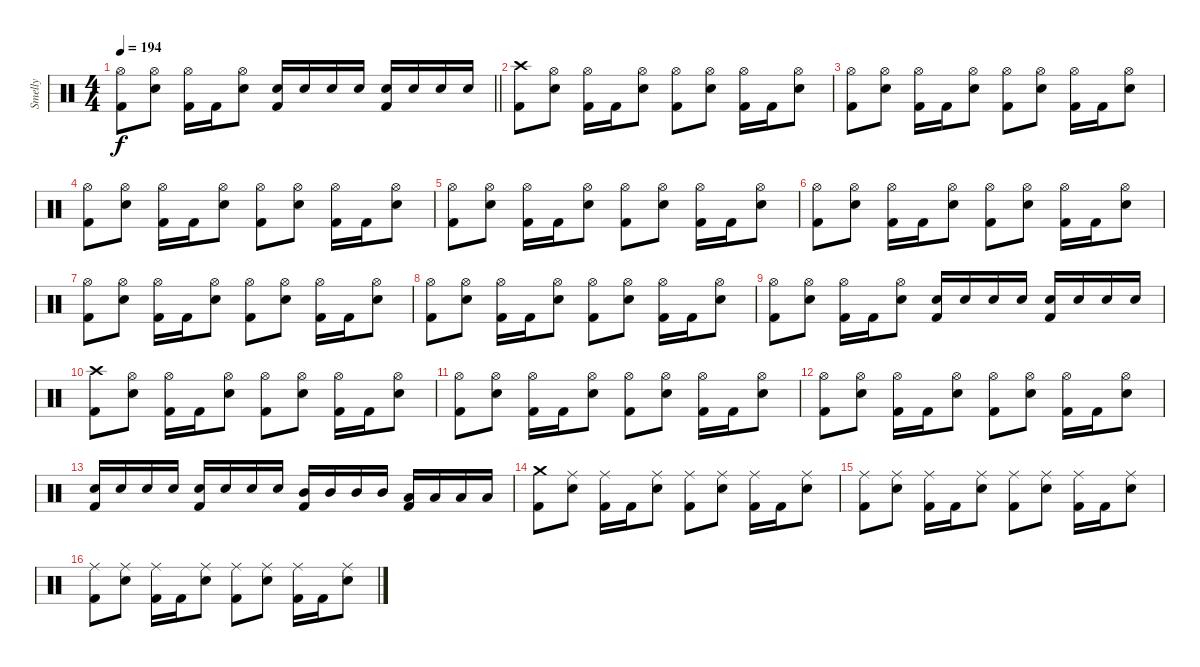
\track ("Smelly" "Smelly") {instrument percussion}
\staff {score}
\articulation defaults
\ts (4 4)
\tempo 194
\clef neutral
\barLineRight lightlight
\ks c
("Hi-Hat (open)" "Kick (hit) 2").8{dy f} ("Hi-Hat (open)" "Electric Snare (hit)").8 ("Hi-Hat (open)" "Kick (hit) 2").16 "Kick (hit) 2".16 ("Hi-Hat (open)" "Electric Snare (hit)").8 ("Electric Snare (hit)" "Kick (hit) 2").16 "Electric Snare (hit)".16 "Electric Snare (hit)".16 "Electric Snare (hit)".16 ("Electric Snare (hit)" "Kick (hit) 2").16 "Electric Snare (hit)".16 "Electric Snare (hit)".16 "Electric Snare (hit)".16 |
\section ("" "")
("Crash high (hit)" "Kick (hit) 2").8 ("Hi-Hat (open)" "Electric Snare (hit)").8 ("Hi-Hat (open)" "Kick (hit) 2").16 "Kick (hit) 2".16 ("Hi-Hat (open)" "Electric Snare (hit)").8 ("Hi-Hat (open)" "Kick (hit) 2").8 ("Hi-Hat (open)" "Electric Snare (hit)").8 ("Hi-Hat (open)" "Kick (hit) 2").16 "Kick (hit) 2".16 ("Hi-Hat (open)" "Electric Snare (hit)").8 |
("Hi-Hat (open)" "Kick (hit) 2").8 ("Hi-Hat (open)" "Electric Snare (hit)").8 ("Hi-Hat (open)" "Kick (hit) 2").16 "Kick (hit) 2".16 ("Hi-Hat (open)" "Electric Snare (hit)").8 ("Hi-Hat (open)" "Kick (hit) 2").8 ("Hi-Hat (open)" "Electric Snare (hit)").8 ("Hi-Hat (open)" "Kick (hit) 2").16 "Kick (hit) 2".16 ("Hi-Hat (open)" "Electric Snare (hit)").8 |
("Hi-Hat (open)" "Kick (hit) 2").8 ("Hi-Hat (open)" "Electric Snare (hit)").8 ("Hi-Hat (open)" "Kick (hit) 2").16 "Kick (hit) 2".16 ("Hi-Hat (open)" "Electric Snare (hit)").8 ("Hi-Hat (open)" "Kick (hit) 2").8 ("Hi-Hat (open)" "Electric Snare (hit)").8 ("Hi-Hat (open)" "Kick (hit) 2").16 "Kick (hit) 2".16 ("Hi-Hat (open)" "Electric Snare (hit)").8 |
("Hi-Hat (open)" "Kick (hit) 2").8 ("Hi-Hat (open)" "Electric Snare (hit)").8 ("Hi-Hat (open)" "Kick (hit) 2").16 "Kick (hit) 2".16 ("Hi-Hat (open)" "Electric Snare (hit)").8 ("Hi-Hat (open)" "Kick (hit) 2").8 ("Hi-Hat (open)" "Electric Snare (hit)").8 ("Hi-Hat (open)" "Kick (hit) 2").16 "Kick (hit) 2".16 ("Hi-Hat (open)" "Electric Snare (hit)").8 |
("Hi-Hat (open)" "Kick (hit) 2").8 ("Hi-Hat (open)" "Electric Snare (hit)").8 ("Hi-Hat (open)" "Kick (hit) 2").16 "Kick (hit) 2".16 ("Hi-Hat (open)" "Electric Snare (hit)").8 ("Hi-Hat (open)" "Kick (hit) 2").8 ("Hi-Hat (open)" "Electric Snare (hit)").8 ("Hi-Hat (open)" "Kick (hit) 2").16 "Kick (hit) 2".16 ("Hi-Hat (open)" "Electric Snare (hit)").8 |
("Hi-Hat (open)" "Kick (hit) 2").8 ("Hi-Hat (open)" "Electric Snare (hit)").8 ("Hi-Hat (open)" "Kick (hit) 2").16 "Kick (hit) 2".16 ("Hi-Hat (open)" "Electric Snare (hit)").8 ("Hi-Hat (open)" "Kick (hit) 2").8 ("Hi-Hat (open)" "Electric Snare (hit)").8 ("Hi-Hat (open)" "Kick (hit) 2").16 "Kick (hit) 2".16 ("Hi-Hat (open)" "Electric Snare (hit)").8 |
("Hi-Hat (open)" "Kick (hit) 2").8 ("Hi-Hat (open)" "Electric Snare (hit)").8 ("Hi-Hat (open)" "Kick (hit) 2").16 "Kick (hit) 2".16 ("Hi-Hat (open)" "Electric Snare (hit)").8 ("Hi-Hat (open)" "Kick (hit) 2").8 ("Hi-Hat (open)" "Electric Snare (hit)").8 ("Hi-Hat (open)" "Kick (hit) 2").16 "Kick (hit) 2".16 ("Hi-Hat (open)" "Electric Snare (hit)").8 |
("Hi-Hat (open)" "Kick (hit) 2").8 ("Hi-Hat (open)" "Electric Snare (hit)").8 ("Hi-Hat (open)" "Kick (hit) 2").16 "Kick (hit) 2".16 ("Hi-Hat (open)" "Electric Snare (hit)").8 ("Electric Snare (hit)" "Kick (hit) 2").16 "Electric Snare (hit)".16 "Electric Snare (hit)".16 "Electric Snare (hit)".16 ("Electric Snare (hit)" "Kick (hit) 2").16 "Electric Snare (hit)".16 "Electric Snare (hit)".16 "Electric Snare (hit)".16 |
("Crash high (hit)" "Kick (hit) 2").8 ("Hi-Hat (open)" "Electric Snare (hit)").8 ("Hi-Hat (open)" "Kick (hit) 2").16 "Kick (hit) 2".16 ("Hi-Hat (open)" "Electric Snare (hit)").8 ("Hi-Hat (open)" "Kick (hit) 2").8 ("Hi-Hat (open)" "Electric Snare (hit)").8 ("Hi-Hat (open)" "Kick (hit) 2").16 "Kick (hit) 2".16 ("Hi-Hat (open)" "Electric Snare (hit)").8 |
("Hi-Hat (open)" "Kick (hit) 2").8 ("Hi-Hat (open)" "Electric Snare (hit)").8 ("Hi-Hat (open)" "Kick (hit) 2").16 "Kick (hit) 2".16 ("Hi-Hat (open)" "Electric Snare (hit)").8 ("Hi-Hat (open)" "Kick (hit) 2").8 ("Hi-Hat (open)" "Electric Snare (hit)").8 ("Hi-Hat (open)" "Kick (hit) 2").16 "Kick (hit) 2".16 ("Hi-Hat (open)" "Electric Snare (hit)").8 |
("Hi-Hat (open)" "Kick (hit) 2").8 ("Hi-Hat (open)" "Electric Snare (hit)").8 ("Hi-Hat (open)" "Kick (hit) 2").16 "Kick (hit) 2".16 ("Hi-Hat (open)" "Electric Snare (hit)").8 ("Hi-Hat (open)" "Kick (hit) 2").8 ("Hi-Hat (open)" "Electric Snare (hit)").8 ("Hi-Hat (open)" "Kick (hit) 2").16 "Kick (hit) 2".16 ("Hi-Hat (open)" "Electric Snare (hit)").8 |
("Electric Snare (hit)" "Kick (hit) 2").16 "Electric Snare (hit)".16 "Electric Snare (hit)".16 "Electric Snare (hit)".16 ("Electric Snare (hit)" "Kick (hit) 2").16 "Electric Snare (hit)".16 "Electric Snare (hit)".16 "Electric Snare (hit)".16 ("Mid Tom (hit)" "Kick (hit) 2").16 "Mid Tom (hit)".16 "Mid Tom (hit)".16 "Mid Tom (hit)".16 ("Low Tom (hit)" "Kick (hit) 2").16 "Low Tom (hit)".16 "Low Floor Tom (hit)".16 "Low Floor Tom (hit)".16 |
("Crash medium (hit)" "Kick (hit) 2").8 ("Ride (middle)" "Electric Snare (hit)").8 ("Ride (middle)" "Kick (hit) 2").16 "Kick (hit) 2".16 ("Ride (middle)" "Electric Snare (hit)").8 ("Ride (middle)" "Kick (hit) 2").8 ("Ride (middle)" "Electric Snare (hit)").8 ("Ride (middle)" "Kick (hit) 2").16 "Kick (hit) 2".16 ("Ride (middle)" "Electric Snare (hit)").8 |
("Ride (middle)" "Kick (hit) 2").8 ("Ride (middle)" "Electric Snare (hit)").8 ("Ride (middle)" "Kick (hit) 2").16 "Kick (hit) 2".16 ("Ride (middle)" "Electric Snare (hit)").8 ("Ride (middle)" "Kick (hit) 2").8 ("Ride (middle)" "Electric Snare (hit)").8 ("Ride (middle)" "Kick (hit) 2").16 "Kick (hit) 2".16 ("Ride (middle)" "Electric Snare (hit)").8 |
("Ride (middle)" "Kick (hit) 2").8 ("Ride (middle)" "Electric Snare (hit)").8 ("Ride (middle)" "Kick (hit) 2").16 "Kick (hit) 2".16 ("Ride (middle)" "Electric Snare (hit)").8 ("Ride (middle)" "Kick (hit) 2").8 ("Ride (middle)" "Electric Snare (hit)").8 ("Ride (middle)" "Kick (hit) 2").16 "Kick (hit) 2".16 ("Ride (middle)" "Electric Snare (hit)").8
